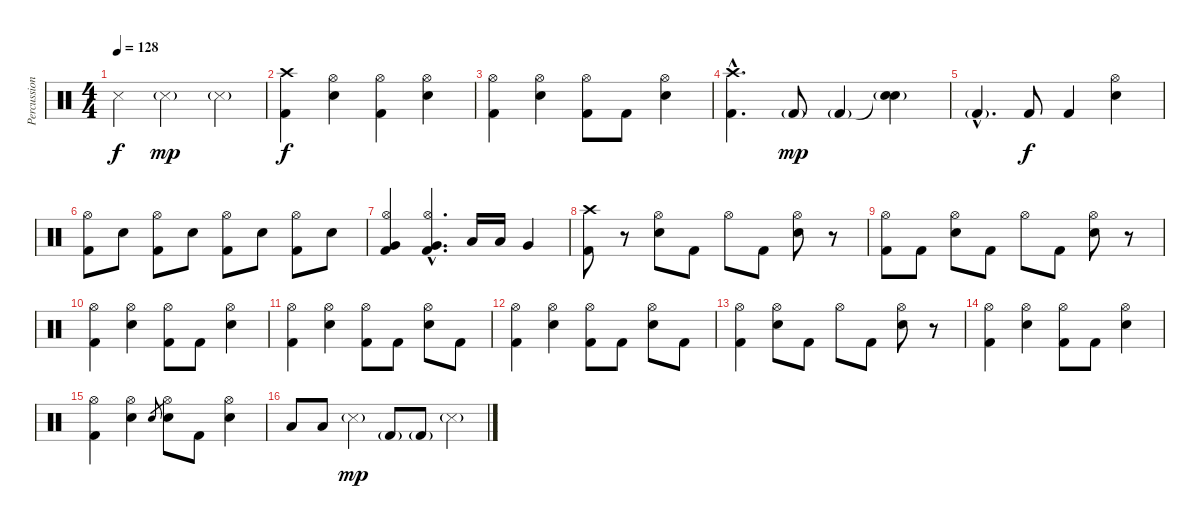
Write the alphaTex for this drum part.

\track ("Percussion" "Percussion") {instrument percussion}
\staff {score}
\articulation defaults
\ts (4 4)
\tempo 128
\clef neutral
\ks c "Snare (side stick) 3"{t}.4{dy f} "Snare (side stick) 3"{g}.2{dy mp} "Snare (side stick) 3"{g}.4
|
("Crash high (hit)" "Kick (hit) 2").4{dy f} ("Hi-Hat (open)" "Snare (hit) 2").4 ("Hi-Hat (open)" "Kick (hit) 2").4 ("Hi-Hat (open)" "Snare (hit) 2").4 |
("Hi-Hat (open)" "Kick (hit) 2").4 ("Hi-Hat (open)" "Snare (hit) 2").4 ("Hi-Hat (open)" "Kick (hit) 2").8 "Kick (hit) 2".8 ("Hi-Hat (open)" "Snare (hit) 2").4 |
("Crash high (hit)"{hac} "Kick (hit) 2"{hac}).4{d} "Kick (hit) 2"{g}.8{dy mp} "Kick (hit) 2"{g}.4 ("Snare (hit)"{t} "Snare (hit) 2"{g}).4 |
"Kick (hit) 2"{g hac}.4{d} "Kick (hit) 2".8{dy f} "Kick (hit) 2".4 ("Hi-Hat (open)" "Snare (hit) 2").4 |
("Hi-Hat (open)" "Kick (hit) 2").8 "Snare (hit) 2".8 ("Hi-Hat (open)" "Kick (hit) 2").8 "Snare (hit) 2".8 ("Hi-Hat (open)" "Kick (hit) 2").8 "Snare (hit) 2".8 ("Hi-Hat (open)" "Kick (hit) 2").8 "Snare (hit) 2".8 |
("Hi-Hat (open)" "Very Low Tom (hit)" "Kick (hit) 2").4 ("Hi-Hat (open)"{hac} "Very Low Tom (hit)"{hac} "Kick (hit) 2"{hac}).4{d} "Low Tom (hit)".16 "Low Tom (hit)".16 "Very Low Tom (hit)".4 |
("Crash high (hit)" "Kick (hit) 2").8 r.8 ("Hi-Hat (open)" "Snare (hit) 2").8 "Kick (hit) 2".8 "Hi-Hat (open)".8 "Kick (hit) 2".8 ("Hi-Hat (open)" "Snare (hit) 2").8 r.8 |
("Hi-Hat (open)" "Kick (hit) 2").8 "Kick (hit) 2".8 ("Hi-Hat (open)" "Snare (hit) 2").8 "Kick (hit) 2".8 "Hi-Hat (open)".8 "Kick (hit) 2".8 ("Hi-Hat (open)" "Snare (hit) 2").8 r.8 |
("Hi-Hat (open)" "Kick (hit) 2").4 ("Hi-Hat (open)" "Snare (hit) 2").4 ("Hi-Hat (open)" "Kick (hit) 2").8 "Kick (hit) 2".8 ("Hi-Hat (open)" "Snare (hit) 2").4 |
("Hi-Hat (open)" "Kick (hit) 2").4 ("Hi-Hat (open)" "Snare (hit) 2").4 ("Hi-Hat (open)" "Kick (hit) 2").8 "Kick (hit) 2".8 ("Hi-Hat (open)" "Snare (hit) 2").8 "Kick (hit) 2".8 |
("Hi-Hat (open)" "Kick (hit) 2").4 ("Hi-Hat (open)" "Snare (hit) 2").4 ("Hi-Hat (open)" "Kick (hit) 2").8 "Kick (hit) 2".8 ("Hi-Hat (open)" "Snare (hit) 2").8 "Kick (hit) 2".8 |
("Hi-Hat (open)" "Kick (hit) 2").4 ("Hi-Hat (open)" "Snare (hit) 2").8 "Kick (hit) 2".8 "Hi-Hat (open)".8 "Kick (hit) 2".8 ("Hi-Hat (open)" "Snare (hit) 2").8 r.8 |
("Hi-Hat (open)" "Kick (hit) 2").4 ("Hi-Hat (open)" "Snare (hit) 2").4 ("Hi-Hat (open)" "Kick (hit) 2").8 "Kick (hit) 2".8 ("Hi-Hat (open)" "Snare (hit) 2").4 |
("Hi-Hat (open)" "Kick (hit) 2").4 ("Hi-Hat (open)" "Snare (hit) 2").4 "Snare (hit) 2".8{gr} ("Hi-Hat (open)" "Snare (hit) 2").8 "Kick (hit) 2".8 ("Hi-Hat (open)" "Snare (hit) 2").4 |
"Low Tom (hit)".8 "Low Tom (hit)".8 "Snare (side stick) 3"{g}.4{dy mp} "Kick (hit) 2"{g}.8 "Kick (hit) 2"{g}.8 "Snare (side stick) 3"{g}.4
